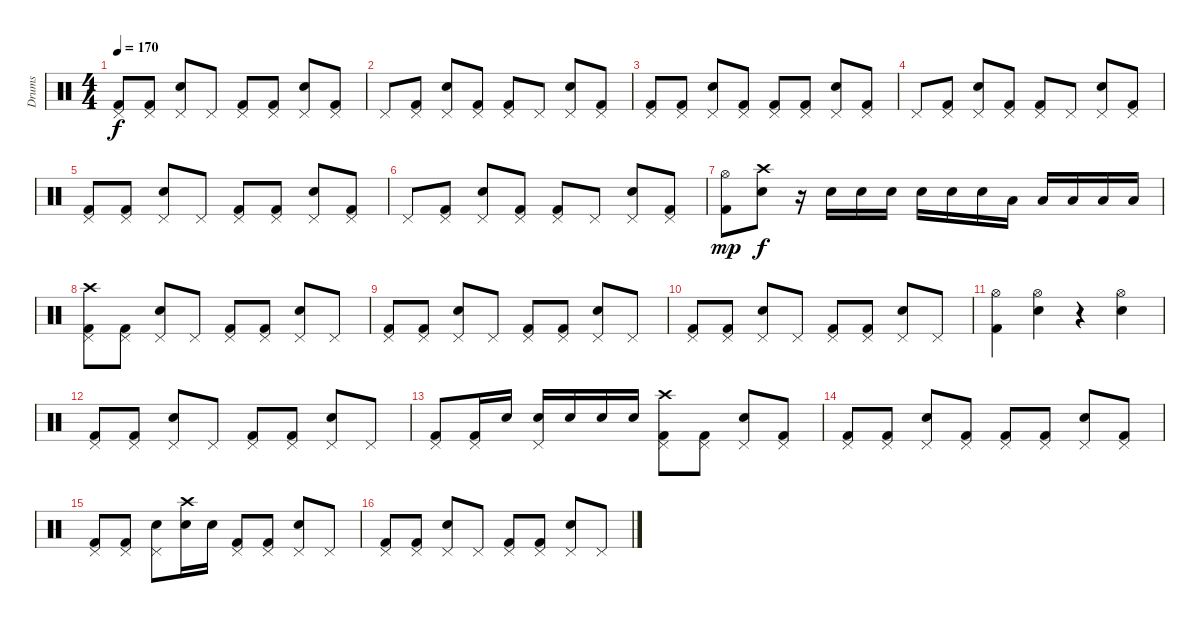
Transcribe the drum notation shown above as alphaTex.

\track ("Drums" "Drums") {instrument percussion}
\staff {score}
\articulation defaults
\ts (4 4)
\tempo 170
\clef neutral
\ks c
("Pedal Hi-Hat (hit)" "Kick (hit) 2").8{dy f} ("Pedal Hi-Hat (hit)" "Kick (hit) 2").8 ("Pedal Hi-Hat (hit)" "Snare (hit) 2").8 "Pedal Hi-Hat (hit)".8 ("Pedal Hi-Hat (hit)" "Kick (hit) 2").8 ("Pedal Hi-Hat (hit)" "Kick (hit) 2").8 ("Pedal Hi-Hat (hit)" "Snare (hit) 2").8 ("Pedal Hi-Hat (hit)" "Kick (hit) 2").8 |
"Pedal Hi-Hat (hit)".8 ("Pedal Hi-Hat (hit)" "Kick (hit) 2").8 ("Pedal Hi-Hat (hit)" "Snare (hit) 2").8 ("Pedal Hi-Hat (hit)" "Kick (hit) 2").8 ("Pedal Hi-Hat (hit)" "Kick (hit) 2").8 "Pedal Hi-Hat (hit)".8 ("Pedal Hi-Hat (hit)" "Snare (hit) 2").8 ("Pedal Hi-Hat (hit)" "Kick (hit) 2").8 |
("Pedal Hi-Hat (hit)" "Kick (hit) 2").8 ("Pedal Hi-Hat (hit)" "Kick (hit) 2").8 ("Pedal Hi-Hat (hit)" "Snare (hit) 2").8 ("Pedal Hi-Hat (hit)" "Kick (hit) 2").8 ("Pedal Hi-Hat (hit)" "Kick (hit) 2").8 ("Pedal Hi-Hat (hit)" "Kick (hit) 2").8 ("Pedal Hi-Hat (hit)" "Snare (hit) 2").8 ("Pedal Hi-Hat (hit)" "Kick (hit) 2").8 |
"Pedal Hi-Hat (hit)".8 ("Pedal Hi-Hat (hit)" "Kick (hit) 2").8 ("Pedal Hi-Hat (hit)" "Snare (hit) 2").8 ("Pedal Hi-Hat (hit)" "Kick (hit) 2").8 ("Pedal Hi-Hat (hit)" "Kick (hit) 2").8 "Pedal Hi-Hat (hit)".8 ("Pedal Hi-Hat (hit)" "Snare (hit) 2").8 ("Pedal Hi-Hat (hit)" "Kick (hit) 2").8 |
("Pedal Hi-Hat (hit)" "Kick (hit) 2").8 ("Pedal Hi-Hat (hit)" "Kick (hit) 2").8 ("Pedal Hi-Hat (hit)" "Snare (hit) 2").8 "Pedal Hi-Hat (hit)".8 ("Pedal Hi-Hat (hit)" "Kick (hit) 2").8 ("Pedal Hi-Hat (hit)" "Kick (hit) 2").8 ("Pedal Hi-Hat (hit)" "Snare (hit) 2").8 ("Pedal Hi-Hat (hit)" "Kick (hit) 2").8 |
"Pedal Hi-Hat (hit)".8 ("Pedal Hi-Hat (hit)" "Kick (hit) 2").8 ("Pedal Hi-Hat (hit)" "Snare (hit) 2").8 ("Pedal Hi-Hat (hit)" "Kick (hit) 2").8 ("Pedal Hi-Hat (hit)" "Kick (hit) 2").8 "Pedal Hi-Hat (hit)".8 ("Pedal Hi-Hat (hit)" "Snare (hit) 2").8 ("Pedal Hi-Hat (hit)" "Kick (hit) 2").8 |
("Hi-Hat (open)" "Kick (hit) 2").8{dy mp} ("Crash high (hit)" "Snare (hit) 2").8{dy f} r.16 "Snare (hit) 2".16 "Snare (hit) 2".16 "Snare (hit) 2".16 "Snare (hit) 2".16 "Snare (hit) 2".16 "Snare (hit) 2".16 "Low Floor Tom (hit)".16 "Low Floor Tom (hit)".16 "Low Floor Tom (hit)".16 "Low Floor Tom (hit)".16 "Low Floor Tom (hit)".16 |
("Crash high (hit)" "Pedal Hi-Hat (hit)" "Kick (hit) 2").8 ("Pedal Hi-Hat (hit)" "Kick (hit) 2").8 ("Pedal Hi-Hat (hit)" "Electric Snare (hit)").8 "Pedal Hi-Hat (hit)".8 ("Pedal Hi-Hat (hit)" "Kick (hit) 2").8 ("Pedal Hi-Hat (hit)" "Kick (hit) 2").8 ("Pedal Hi-Hat (hit)" "Electric Snare (hit)").8 "Pedal Hi-Hat (hit)".8 |
("Pedal Hi-Hat (hit)" "Kick (hit) 2").8 ("Pedal Hi-Hat (hit)" "Kick (hit) 2").8 ("Pedal Hi-Hat (hit)" "Electric Snare (hit)").8 "Pedal Hi-Hat (hit)".8 ("Pedal Hi-Hat (hit)" "Kick (hit) 2").8 ("Pedal Hi-Hat (hit)" "Kick (hit) 2").8 ("Pedal Hi-Hat (hit)" "Electric Snare (hit)").8 "Pedal Hi-Hat (hit)".8 |
("Pedal Hi-Hat (hit)" "Kick (hit) 2").8 ("Pedal Hi-Hat (hit)" "Kick (hit) 2").8 ("Pedal Hi-Hat (hit)" "Electric Snare (hit)").8 "Pedal Hi-Hat (hit)".8 ("Pedal Hi-Hat (hit)" "Kick (hit) 2").8 ("Pedal Hi-Hat (hit)" "Kick (hit) 2").8 ("Pedal Hi-Hat (hit)" "Electric Snare (hit)").8 "Pedal Hi-Hat (hit)".8 |
("Hi-Hat (open)" "Kick (hit) 2").4 ("Hi-Hat (open)" "Electric Snare (hit)").4 r.4 ("Hi-Hat (open)" "Electric Snare (hit)").4 |
("Pedal Hi-Hat (hit)" "Kick (hit) 2").8 ("Pedal Hi-Hat (hit)" "Kick (hit) 2").8 ("Pedal Hi-Hat (hit)" "Electric Snare (hit)").8 "Pedal Hi-Hat (hit)".8 ("Pedal Hi-Hat (hit)" "Kick (hit) 2").8 ("Pedal Hi-Hat (hit)" "Kick (hit) 2").8 ("Pedal Hi-Hat (hit)" "Electric Snare (hit)").8 "Pedal Hi-Hat (hit)".8 |
("Pedal Hi-Hat (hit)" "Kick (hit) 2").8 ("Pedal Hi-Hat (hit)" "Kick (hit) 2").16 "Electric Snare (hit)".16 ("Pedal Hi-Hat (hit)" "Electric Snare (hit)").16 "Electric Snare (hit)".16 "Electric Snare (hit)".16 "Electric Snare (hit)".16 ("Crash high (hit)" "Pedal Hi-Hat (hit)" "Kick (hit) 2").8 ("Pedal Hi-Hat (hit)" "Kick (hit) 2").8 ("Pedal Hi-Hat (hit)" "Electric Snare (hit)").8 ("Pedal Hi-Hat (hit)" "Kick (hit) 2").8 |
("Pedal Hi-Hat (hit)" "Kick (hit) 2").8 ("Pedal Hi-Hat (hit)" "Kick (hit) 2").8 ("Pedal Hi-Hat (hit)" "Electric Snare (hit)").8 ("Pedal Hi-Hat (hit)" "Kick (hit) 2").8 ("Pedal Hi-Hat (hit)" "Kick (hit) 2").8 ("Pedal Hi-Hat (hit)" "Kick (hit) 2").8 ("Pedal Hi-Hat (hit)" "Electric Snare (hit)").8 ("Pedal Hi-Hat (hit)" "Kick (hit) 2").8 |
("Pedal Hi-Hat (hit)" "Kick (hit) 2").8 ("Pedal Hi-Hat (hit)" "Kick (hit) 2").8 ("Pedal Hi-Hat (hit)" "Electric Snare (hit)").8 ("Crash high (hit)" "Electric Snare (hit)").16 "Electric Snare (hit)".16 ("Pedal Hi-Hat (hit)" "Kick (hit) 2").8 ("Pedal Hi-Hat (hit)" "Kick (hit) 2").8 ("Pedal Hi-Hat (hit)" "Electric Snare (hit)").8 "Pedal Hi-Hat (hit)".8 |
("Pedal Hi-Hat (hit)" "Kick (hit) 2").8 ("Pedal Hi-Hat (hit)" "Kick (hit) 2").8 ("Pedal Hi-Hat (hit)" "Electric Snare (hit)").8 "Pedal Hi-Hat (hit)".8 ("Pedal Hi-Hat (hit)" "Kick (hit) 2").8 ("Pedal Hi-Hat (hit)" "Kick (hit) 2").8 ("Pedal Hi-Hat (hit)" "Electric Snare (hit)").8 "Pedal Hi-Hat (hit)".8
